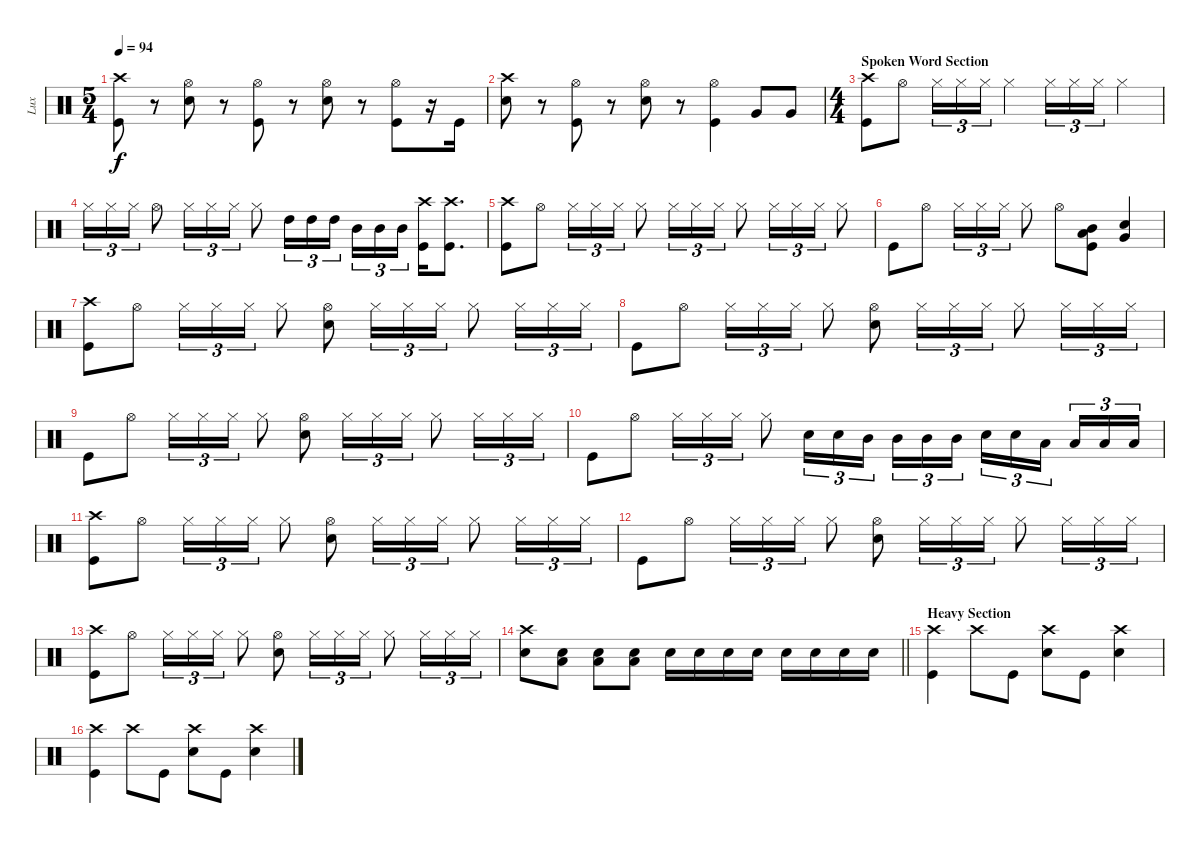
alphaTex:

\track ("Lux" "Lux") {instrument percussion}
\staff {score}
\articulation defaults
\ts (5 4)
\tempo 94
\clef neutral
\ks c
("Crash high (hit)" "Kick (hit)").8{dy f} r.8 ("Hi-Hat (open)" "Snare (hit) 2").8 r.8 ("Hi-Hat (open)" "Kick (hit)").8 r.8 ("Hi-Hat (open)" "Snare (hit) 2").8 r.8 ("Hi-Hat (open)" "Kick (hit)").8 r.16 "Kick (hit)".16 |
("Crash high (hit)" "Snare (hit) 2").8 r.8 ("Hi-Hat (open)" "Kick (hit)").8 r.8 ("Hi-Hat (open)" "Snare (hit) 2").8 r.8 ("Hi-Hat (open)" "Kick (hit)").4 "Very Low Tom (hit)".8 "Very Low Tom (hit)".8 |
\ts (4 4)
\section ("" "Spoken Word Section")
("Crash high (hit)" "Kick (hit)").8 "Hi-Hat (open)".8 "Hi-Hat (closed)".16{tu (3 2)} "Hi-Hat (closed)".16{tu (3 2)} "Hi-Hat (closed)".16{tu (3 2)} "Hi-Hat (closed)".4 "Hi-Hat (closed)".16{tu (3 2)} "Hi-Hat (closed)".16{tu (3 2)} "Hi-Hat (closed)".16{tu (3 2)} "Hi-Hat (closed)".4 |
"Hi-Hat (closed)".16{tu (3 2)} "Hi-Hat (closed)".16{tu (3 2)} "Hi-Hat (closed)".16{tu (3 2)} "Hi-Hat (open)".8 "Hi-Hat (closed)".16{tu (3 2)} "Hi-Hat (closed)".16{tu (3 2)} "Hi-Hat (closed)".16{tu (3 2)} "Hi-Hat (closed)".8 "High Tom (hit)".16{tu (3 2)} "High Tom (hit)".16{tu (3 2)} "High Tom (hit)".16{tu (3 2) beam splitsecondary} "Mid Tom (hit)".16{tu (3 2)} "Mid Tom (hit)".16{tu (3 2)} "Mid Tom (hit)".16{tu (3 2)} ("Crash high (hit)" "Kick (hit)").16 ("Crash high (hit)" "Kick (hit)").8{d} |
("Crash high (hit)" "Kick (hit)").8 "Hi-Hat (open)".8 "Hi-Hat (closed)".16{tu (3 2)} "Hi-Hat (closed)".16{tu (3 2)} "Hi-Hat (closed)".16{tu (3 2)} "Hi-Hat (closed)".8 "Hi-Hat (closed)".16{tu (3 2)} "Hi-Hat (closed)".16{tu (3 2)} "Hi-Hat (closed)".16{tu (3 2)} "Hi-Hat (closed)".8 "Hi-Hat (closed)".16{tu (3 2)} "Hi-Hat (closed)".16{tu (3 2)} "Hi-Hat (closed)".16{tu (3 2)} "Hi-Hat (closed)".8 |
"Kick (hit)".8 "Hi-Hat (open)".8 "Hi-Hat (closed)".16{tu (3 2)} "Hi-Hat (closed)".16{tu (3 2)} "Hi-Hat (closed)".16{tu (3 2)} "Hi-Hat (closed)".8 "Hi-Hat (open)".8 ("Mid Tom (hit)" "Low Floor Tom (hit)" "Kick (hit)").8 ("Very Low Tom (hit)" "Snare (hit) 2").4 |
("Crash high (hit)" "Kick (hit)").8 "Hi-Hat (open)".8 "Hi-Hat (closed)".16{tu (3 2)} "Hi-Hat (closed)".16{tu (3 2)} "Hi-Hat (closed)".16{tu (3 2)} "Hi-Hat (closed)".8 ("Hi-Hat (open)" "Snare (hit) 2").8 "Hi-Hat (closed)".16{tu (3 2)} "Hi-Hat (closed)".16{tu (3 2)} "Hi-Hat (closed)".16{tu (3 2)} "Hi-Hat (closed)".8 "Hi-Hat (closed)".16{tu (3 2)} "Hi-Hat (closed)".16{tu (3 2)} "Hi-Hat (closed)".16{tu (3 2)} |
"Kick (hit)".8 "Hi-Hat (open)".8 "Hi-Hat (closed)".16{tu (3 2)} "Hi-Hat (closed)".16{tu (3 2)} "Hi-Hat (closed)".16{tu (3 2)} "Hi-Hat (closed)".8 ("Hi-Hat (open)" "Snare (hit) 2").8 "Hi-Hat (closed)".16{tu (3 2)} "Hi-Hat (closed)".16{tu (3 2)} "Hi-Hat (closed)".16{tu (3 2)} "Hi-Hat (closed)".8 "Hi-Hat (closed)".16{tu (3 2)} "Hi-Hat (closed)".16{tu (3 2)} "Hi-Hat (closed)".16{tu (3 2)} |
"Kick (hit)".8 "Hi-Hat (open)".8 "Hi-Hat (closed)".16{tu (3 2)} "Hi-Hat (closed)".16{tu (3 2)} "Hi-Hat (closed)".16{tu (3 2)} "Hi-Hat (closed)".8 ("Hi-Hat (open)" "Snare (hit) 2").8 "Hi-Hat (closed)".16{tu (3 2)} "Hi-Hat (closed)".16{tu (3 2)} "Hi-Hat (closed)".16{tu (3 2)} "Hi-Hat (closed)".8 "Hi-Hat (closed)".16{tu (3 2)} "Hi-Hat (closed)".16{tu (3 2)} "Hi-Hat (closed)".16{tu (3 2)} |
"Kick (hit)".8 "Hi-Hat (open)".8 "Hi-Hat (closed)".16{tu (3 2)} "Hi-Hat (closed)".16{tu (3 2)} "Hi-Hat (closed)".16{tu (3 2)} "Hi-Hat (closed)".8 "Snare (hit) 2".16{tu (3 2)} "Snare (hit) 2".16{tu (3 2)} "Mid Tom (hit)".16{tu (3 2) beam splitsecondary} "Mid Tom (hit)".16{tu (3 2)} "Mid Tom (hit)".16{tu (3 2)} "Mid Tom (hit)".16{tu (3 2)} "Snare (hit) 2".16{tu (3 2)} "Snare (hit) 2".16{tu (3 2)} "Low Tom (hit)".16{tu (3 2) beam splitsecondary} "Low Tom (hit)".16{tu (3 2)} "Low Tom (hit)".16{tu (3 2)} "Low Tom (hit)".16{tu (3 2)} |
("Crash high (hit)" "Kick (hit)").8 "Hi-Hat (open)".8 "Hi-Hat (closed)".16{tu (3 2)} "Hi-Hat (closed)".16{tu (3 2)} "Hi-Hat (closed)".16{tu (3 2)} "Hi-Hat (closed)".8 ("Hi-Hat (open)" "Snare (hit) 2").8 "Hi-Hat (closed)".16{tu (3 2)} "Hi-Hat (closed)".16{tu (3 2)} "Hi-Hat (closed)".16{tu (3 2)} "Hi-Hat (closed)".8 "Hi-Hat (closed)".16{tu (3 2)} "Hi-Hat (closed)".16{tu (3 2)} "Hi-Hat (closed)".16{tu (3 2)} |
"Kick (hit)".8 "Hi-Hat (open)".8 "Hi-Hat (closed)".16{tu (3 2)} "Hi-Hat (closed)".16{tu (3 2)} "Hi-Hat (closed)".16{tu (3 2)} "Hi-Hat (closed)".8 ("Hi-Hat (open)" "Snare (hit) 2").8 "Hi-Hat (closed)".16{tu (3 2)} "Hi-Hat (closed)".16{tu (3 2)} "Hi-Hat (closed)".16{tu (3 2)} "Hi-Hat (closed)".8 "Hi-Hat (closed)".16{tu (3 2)} "Hi-Hat (closed)".16{tu (3 2)} "Hi-Hat (closed)".16{tu (3 2)} |
("Crash high (hit)" "Kick (hit)").8 "Hi-Hat (open)".8 "Hi-Hat (closed)".16{tu (3 2)} "Hi-Hat (closed)".16{tu (3 2)} "Hi-Hat (closed)".16{tu (3 2)} "Hi-Hat (closed)".8 ("Hi-Hat (open)" "Snare (hit) 2").8 "Hi-Hat (closed)".16{tu (3 2)} "Hi-Hat (closed)".16{tu (3 2)} "Hi-Hat (closed)".16{tu (3 2)} "Hi-Hat (closed)".8 "Hi-Hat (closed)".16{tu (3 2)} "Hi-Hat (closed)".16{tu (3 2)} "Hi-Hat (closed)".16{tu (3 2)} |
\barLineRight lightlight
("Crash high (hit)" "Snare (hit) 2").8 ("Low Tom (hit)" "Snare (hit) 2").8 ("Low Tom (hit)" "Snare (hit) 2").8 ("Low Tom (hit)" "Snare (hit) 2").8 "Snare (hit) 2".16 "Snare (hit) 2".16 "Snare (hit) 2".16 "Snare (hit) 2".16 "Snare (hit) 2".16 "Snare (hit) 2".16 "Snare (hit) 2".16 "Snare (hit) 2".16 |
\section ("" "Heavy Section")
("Crash high (hit)" "Kick (hit)").4 "Crash high (hit)".8 "Kick (hit)".8 ("Crash high (hit)" "Snare (hit) 2").8 "Kick (hit)".8 ("Crash high (hit)" "Snare (hit) 2").4 |
("Crash high (hit)" "Kick (hit)").4 "Crash high (hit)".8 "Kick (hit)".8 ("Crash high (hit)" "Snare (hit) 2").8 "Kick (hit)".8 ("Crash high (hit)" "Snare (hit) 2").4
